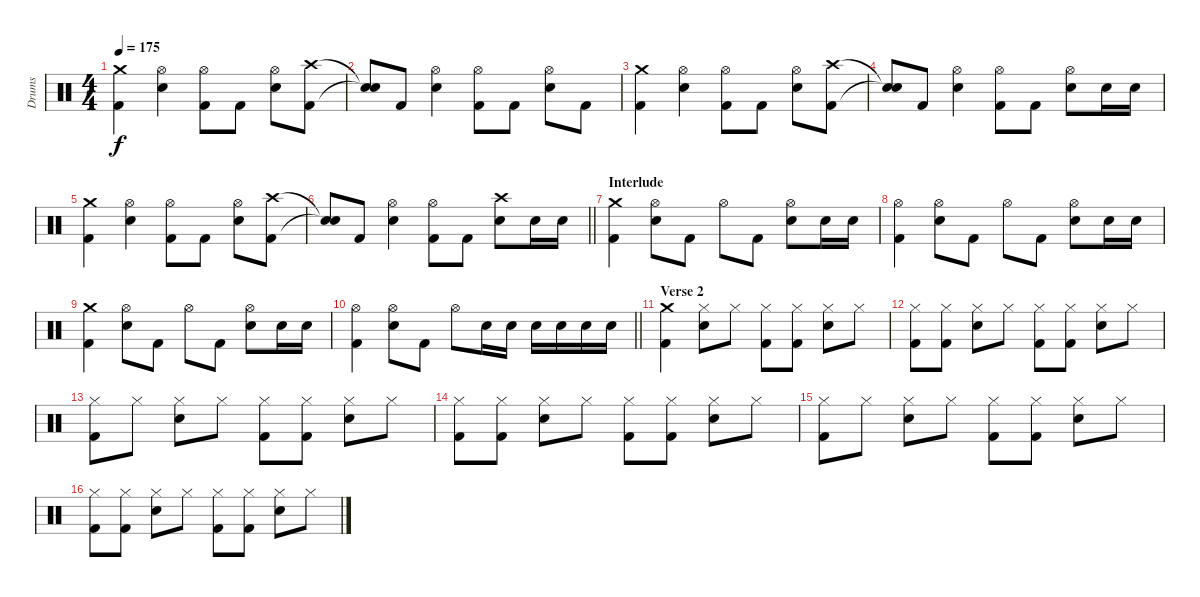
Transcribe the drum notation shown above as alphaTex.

\track ("Drums" "Drums") {instrument percussion}
\staff {score}
\articulation defaults
\ts (4 4)
\tempo 175
\clef neutral
\ks c
("Crash medium (hit)" "Kick (hit) 2").4{dy f} ("Hi-Hat (open)" "Electric Snare (hit)").4 ("Hi-Hat (open)" "Kick (hit) 2").8 "Kick (hit) 2".8 ("Hi-Hat (open)" "Electric Snare (hit)").8 ("Crash high (hit)" "Kick (hit) 2").8 |
("Snare (hit)"{t} "Snare (hit)"{t}).8 "Kick (hit) 2".8 ("Hi-Hat (open)" "Electric Snare (hit)").4 ("Hi-Hat (open)" "Kick (hit) 2").8 "Kick (hit) 2".8 ("Hi-Hat (open)" "Electric Snare (hit)").8 "Kick (hit) 2".8 |
("Crash medium (hit)" "Kick (hit) 2").4 ("Hi-Hat (open)" "Electric Snare (hit)").4 ("Hi-Hat (open)" "Kick (hit) 2").8 "Kick (hit) 2".8 ("Hi-Hat (open)" "Electric Snare (hit)").8 ("Crash high (hit)" "Kick (hit) 2").8 |
("Snare (hit)"{t} "Snare (hit)"{t}).8 "Kick (hit) 2".8 ("Hi-Hat (open)" "Electric Snare (hit)").4 ("Hi-Hat (open)" "Kick (hit) 2").8 "Kick (hit) 2".8 ("Hi-Hat (open)" "Electric Snare (hit)").8 "Electric Snare (hit)".16 "Electric Snare (hit)".16 |
("Crash medium (hit)" "Kick (hit) 2").4 ("Hi-Hat (open)" "Electric Snare (hit)").4 ("Hi-Hat (open)" "Kick (hit) 2").8 "Kick (hit) 2".8 ("Hi-Hat (open)" "Electric Snare (hit)").8 ("Crash high (hit)" "Kick (hit) 2").8 |
\barLineRight lightlight
("Snare (hit)"{t} "Snare (hit)"{t}).8 "Kick (hit) 2".8 ("Hi-Hat (open)" "Electric Snare (hit)").4 ("Hi-Hat (open)" "Kick (hit) 2").8 "Kick (hit) 2".8 ("Crash high (hit)" "Electric Snare (hit)").8 "Electric Snare (hit)".16 "Electric Snare (hit)".16 |
\section ("" "Interlude")
("Crash medium (hit)" "Kick (hit) 2").4 ("Hi-Hat (open)" "Electric Snare (hit)").8 "Kick (hit) 2".8 "Hi-Hat (open)".8 "Kick (hit) 2".8 ("Hi-Hat (open)" "Electric Snare (hit)").8 "Electric Snare (hit)".16 "Electric Snare (hit)".16 |
("Hi-Hat (open)" "Kick (hit) 2").4 ("Hi-Hat (open)" "Electric Snare (hit)").8 "Kick (hit) 2".8 "Hi-Hat (open)".8 "Kick (hit) 2".8 ("Hi-Hat (open)" "Electric Snare (hit)").8 "Electric Snare (hit)".16 "Electric Snare (hit)".16 |
("Crash medium (hit)" "Kick (hit) 2").4 ("Hi-Hat (open)" "Electric Snare (hit)").8 "Kick (hit) 2".8 "Hi-Hat (open)".8 "Kick (hit) 2".8 ("Hi-Hat (open)" "Electric Snare (hit)").8 "Electric Snare (hit)".16 "Electric Snare (hit)".16 |
\barLineRight lightlight
("Hi-Hat (open)" "Kick (hit) 2").4 ("Hi-Hat (open)" "Electric Snare (hit)").8 "Kick (hit) 2".8 "Hi-Hat (open)".8 "Electric Snare (hit)".16 "Electric Snare (hit)".16 "Electric Snare (hit)".16 "Electric Snare (hit)".16 "Electric Snare (hit)".16 "Electric Snare (hit)".16 |
\section ("" "Verse 2")
("Crash medium (hit)" "Kick (hit) 2").4 ("Hi-Hat (closed)" "Electric Snare (hit)").8 "Hi-Hat (closed)".8 ("Hi-Hat (closed)" "Kick (hit) 2").8 ("Hi-Hat (closed)" "Kick (hit) 2").8 ("Hi-Hat (closed)" "Electric Snare (hit)").8 "Hi-Hat (closed)".8 |
("Hi-Hat (closed)" "Kick (hit) 2").8 ("Hi-Hat (closed)" "Kick (hit) 2").8 ("Hi-Hat (closed)" "Electric Snare (hit)").8 "Hi-Hat (closed)".8 ("Hi-Hat (closed)" "Kick (hit) 2").8 ("Hi-Hat (closed)" "Kick (hit) 2").8 ("Hi-Hat (closed)" "Electric Snare (hit)").8 "Hi-Hat (closed)".8 |
("Hi-Hat (closed)" "Kick (hit) 2").8 "Hi-Hat (closed)".8 ("Hi-Hat (closed)" "Electric Snare (hit)").8 "Hi-Hat (closed)".8 ("Hi-Hat (closed)" "Kick (hit) 2").8 ("Hi-Hat (closed)" "Kick (hit) 2").8 ("Hi-Hat (closed)" "Electric Snare (hit)").8 "Hi-Hat (closed)".8 |
("Hi-Hat (closed)" "Kick (hit) 2").8 ("Hi-Hat (closed)" "Kick (hit) 2").8 ("Hi-Hat (closed)" "Electric Snare (hit)").8 "Hi-Hat (closed)".8 ("Hi-Hat (closed)" "Kick (hit) 2").8 ("Hi-Hat (closed)" "Kick (hit) 2").8 ("Hi-Hat (closed)" "Electric Snare (hit)").8 "Hi-Hat (closed)".8 |
("Hi-Hat (closed)" "Kick (hit) 2").8 "Hi-Hat (closed)".8 ("Hi-Hat (closed)" "Electric Snare (hit)").8 "Hi-Hat (closed)".8 ("Hi-Hat (closed)" "Kick (hit) 2").8 ("Hi-Hat (closed)" "Kick (hit) 2").8 ("Hi-Hat (closed)" "Electric Snare (hit)").8 "Hi-Hat (closed)".8 |
("Hi-Hat (closed)" "Kick (hit) 2").8 ("Hi-Hat (closed)" "Kick (hit) 2").8 ("Hi-Hat (closed)" "Electric Snare (hit)").8 "Hi-Hat (closed)".8 ("Hi-Hat (closed)" "Kick (hit) 2").8 ("Hi-Hat (closed)" "Kick (hit) 2").8 ("Hi-Hat (closed)" "Electric Snare (hit)").8 "Hi-Hat (closed)".8
